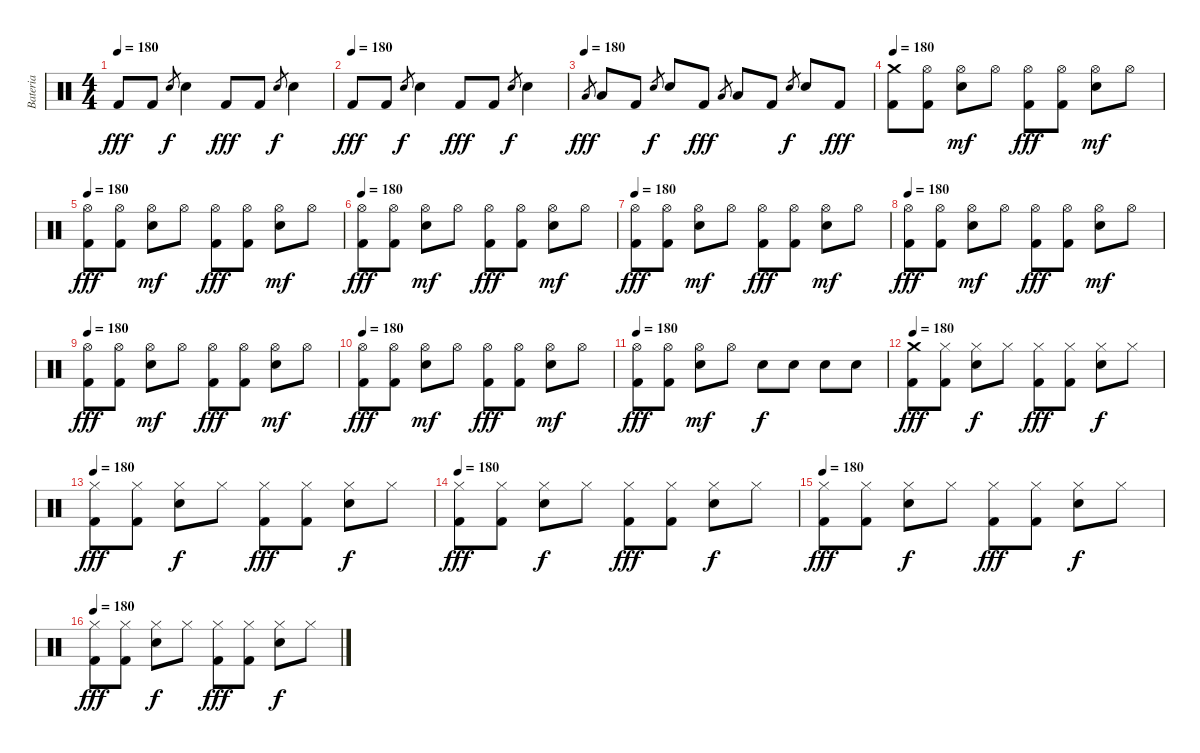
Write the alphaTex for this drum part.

\track ("Bateria" "Bateria") {instrument percussion}
\staff {score}
\articulation defaults
\ts (4 4)
\tempo 180
\clef neutral
\ks c "Kick (hit) 2".8{dy fff} "Kick (hit) 2".8 "Electric Snare (hit)".8{gr dy f} "Electric Snare (hit)".4 "Kick (hit) 2".8{dy fff} "Kick (hit) 2".8 "Electric Snare (hit)".8{gr dy f} "Electric Snare (hit)".4
|
\tempo (180)
"Kick (hit) 2".8{dy fff} "Kick (hit) 2".8 "Electric Snare (hit)".8{gr dy f} "Electric Snare (hit)".4 "Kick (hit) 2".8{dy fff} "Kick (hit) 2".8 "Electric Snare (hit)".8{gr dy f} "Electric Snare (hit)".4 |
\tempo (180)
"Low Tom (hit)".8{gr dy fff} "Low Tom (hit)".8 "Kick (hit) 2".8 "Electric Snare (hit)".8{gr dy f} "Electric Snare (hit)".8 "Kick (hit) 2".8{dy fff} "Low Tom (hit)".8{gr} "Low Tom (hit)".8 "Kick (hit) 2".8 "Electric Snare (hit)".8{gr dy f} "Electric Snare (hit)".8 "Kick (hit) 2".8{dy fff} |
\tempo 180
("Crash medium (hit)" "Kick (hit) 2").8 ("Hi-Hat (open)" "Kick (hit) 2").8 ("Hi-Hat (open)" "Electric Snare (hit)").8{dy mf} "Hi-Hat (open)".8 ("Hi-Hat (open)" "Kick (hit) 2").8{dy fff} ("Hi-Hat (open)" "Kick (hit) 2").8 ("Hi-Hat (open)" "Electric Snare (hit)").8{dy mf} "Hi-Hat (open)".8 |
\tempo 180
("Hi-Hat (open)" "Kick (hit) 2").8{dy fff} ("Hi-Hat (open)" "Kick (hit) 2").8 ("Hi-Hat (open)" "Electric Snare (hit)").8{dy mf} "Hi-Hat (open)".8 ("Hi-Hat (open)" "Kick (hit) 2").8{dy fff} ("Hi-Hat (open)" "Kick (hit) 2").8 ("Hi-Hat (open)" "Electric Snare (hit)").8{dy mf} "Hi-Hat (open)".8 |
\tempo 180
("Hi-Hat (open)" "Kick (hit) 2").8{dy fff} ("Hi-Hat (open)" "Kick (hit) 2").8 ("Hi-Hat (open)" "Electric Snare (hit)").8{dy mf} "Hi-Hat (open)".8 ("Hi-Hat (open)" "Kick (hit) 2").8{dy fff} ("Hi-Hat (open)" "Kick (hit) 2").8 ("Hi-Hat (open)" "Electric Snare (hit)").8{dy mf} "Hi-Hat (open)".8 |
\tempo 180
("Hi-Hat (open)" "Kick (hit) 2").8{dy fff} ("Hi-Hat (open)" "Kick (hit) 2").8 ("Hi-Hat (open)" "Electric Snare (hit)").8{dy mf} "Hi-Hat (open)".8 ("Hi-Hat (open)" "Kick (hit) 2").8{dy fff} ("Hi-Hat (open)" "Kick (hit) 2").8 ("Hi-Hat (open)" "Electric Snare (hit)").8{dy mf} "Hi-Hat (open)".8 |
\tempo 180
("Hi-Hat (open)" "Kick (hit) 2").8{dy fff} ("Hi-Hat (open)" "Kick (hit) 2").8 ("Hi-Hat (open)" "Electric Snare (hit)").8{dy mf} "Hi-Hat (open)".8 ("Hi-Hat (open)" "Kick (hit) 2").8{dy fff} ("Hi-Hat (open)" "Kick (hit) 2").8 ("Hi-Hat (open)" "Electric Snare (hit)").8{dy mf} "Hi-Hat (open)".8 |
\tempo 180
("Hi-Hat (open)" "Kick (hit) 2").8{dy fff} ("Hi-Hat (open)" "Kick (hit) 2").8 ("Hi-Hat (open)" "Electric Snare (hit)").8{dy mf} "Hi-Hat (open)".8 ("Hi-Hat (open)" "Kick (hit) 2").8{dy fff} ("Hi-Hat (open)" "Kick (hit) 2").8 ("Hi-Hat (open)" "Electric Snare (hit)").8{dy mf} "Hi-Hat (open)".8 |
\tempo 180
("Hi-Hat (open)" "Kick (hit) 2").8{dy fff} ("Hi-Hat (open)" "Kick (hit) 2").8 ("Hi-Hat (open)" "Electric Snare (hit)").8{dy mf} "Hi-Hat (open)".8 ("Hi-Hat (open)" "Kick (hit) 2").8{dy fff} ("Hi-Hat (open)" "Kick (hit) 2").8 ("Hi-Hat (open)" "Electric Snare (hit)").8{dy mf} "Hi-Hat (open)".8 |
\tempo 180
("Hi-Hat (open)" "Kick (hit) 2").8{dy fff} ("Hi-Hat (open)" "Kick (hit) 2").8 ("Hi-Hat (open)" "Electric Snare (hit)").8{dy mf} "Hi-Hat (open)".8 "Electric Snare (hit)".8{dy f} "Electric Snare (hit)".8 "Electric Snare (hit)".8 "Electric Snare (hit)".8 |
\tempo 180
("Crash medium (hit)" "Kick (hit) 2").8{dy fff} ("Hi-Hat (closed)" "Kick (hit) 2").8 ("Hi-Hat (closed)" "Electric Snare (hit)").8{dy f} "Hi-Hat (closed)".8 ("Hi-Hat (closed)" "Kick (hit) 2").8{dy fff} ("Hi-Hat (closed)" "Kick (hit) 2").8 ("Hi-Hat (closed)" "Electric Snare (hit)").8{dy f} "Hi-Hat (closed)".8 |
\tempo 180
("Hi-Hat (closed)" "Kick (hit) 2").8{dy fff} ("Hi-Hat (closed)" "Kick (hit) 2").8 ("Hi-Hat (closed)" "Electric Snare (hit)").8{dy f} "Hi-Hat (closed)".8 ("Hi-Hat (closed)" "Kick (hit) 2").8{dy fff} ("Hi-Hat (closed)" "Kick (hit) 2").8 ("Hi-Hat (closed)" "Electric Snare (hit)").8{dy f} "Hi-Hat (closed)".8 |
\tempo 180
("Hi-Hat (closed)" "Kick (hit) 2").8{dy fff} ("Hi-Hat (closed)" "Kick (hit) 2").8 ("Hi-Hat (closed)" "Electric Snare (hit)").8{dy f} "Hi-Hat (closed)".8 ("Hi-Hat (closed)" "Kick (hit) 2").8{dy fff} ("Hi-Hat (closed)" "Kick (hit) 2").8 ("Hi-Hat (closed)" "Electric Snare (hit)").8{dy f} "Hi-Hat (closed)".8 |
\tempo 180
("Hi-Hat (closed)" "Kick (hit) 2").8{dy fff} ("Hi-Hat (closed)" "Kick (hit) 2").8 ("Hi-Hat (closed)" "Electric Snare (hit)").8{dy f} "Hi-Hat (closed)".8 ("Hi-Hat (closed)" "Kick (hit) 2").8{dy fff} ("Hi-Hat (closed)" "Kick (hit) 2").8 ("Hi-Hat (closed)" "Electric Snare (hit)").8{dy f} "Hi-Hat (closed)".8 |
\tempo 180
("Hi-Hat (closed)" "Kick (hit) 2").8{dy fff} ("Hi-Hat (closed)" "Kick (hit) 2").8 ("Hi-Hat (closed)" "Electric Snare (hit)").8{dy f} "Hi-Hat (closed)".8 ("Hi-Hat (closed)" "Kick (hit) 2").8{dy fff} ("Hi-Hat (closed)" "Kick (hit) 2").8 ("Hi-Hat (closed)" "Electric Snare (hit)").8{dy f} "Hi-Hat (closed)".8
